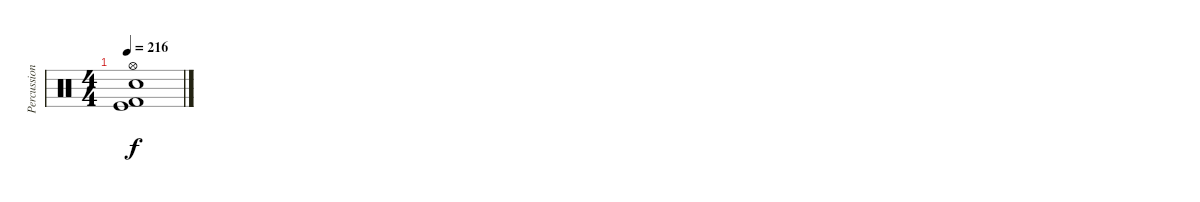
\track ("Percussions" "Percussion") {instrument percussion}
\staff {score}
\articulation defaults
\ts (4 4)
\tempo 216
\clef neutral
\ks c
("Hi-Hat (open)" "Electric Snare (hit)" "Kick (hit)" "Kick (hit) 2").1{dy f}
